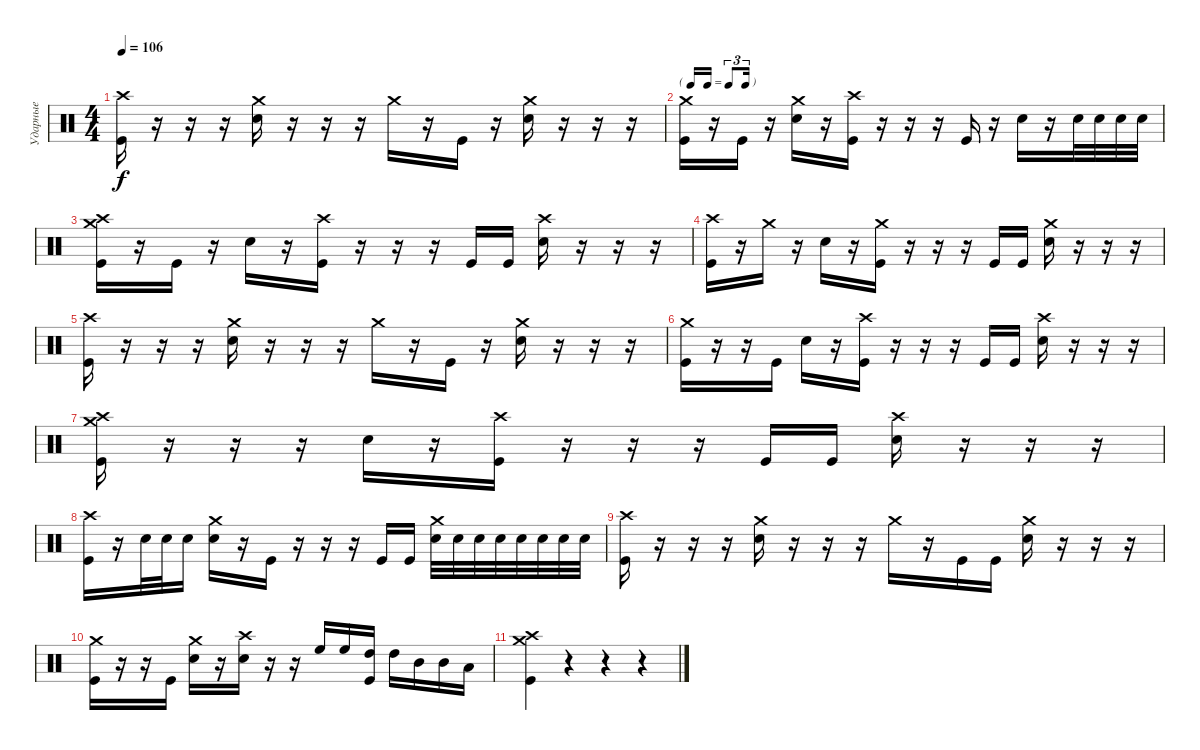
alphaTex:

\track ("Ударные" "Ударные") {instrument percussion}
\staff {score}
\articulation defaults
\ts (4 4)
\tempo 106
\clef neutral
\ks c
("Crash high (hit)" "Kick (hit)").16{dy f} r.16 r.16 r.16 ("Crash medium (hit)" "Snare (hit) 2").16 r.16 r.16 r.16 "Crash medium (hit)".16 r.16 "Kick (hit)".16 r.16 ("Crash medium (hit)" "Snare (hit) 2").16 r.16 r.16 r.16 |
\tf triplet16th
("Crash medium (hit)" "Kick (hit)").16 r.16 "Kick (hit)".16 r.16 ("Crash medium (hit)" "Snare (hit) 2").16 r.16 ("Crash high (hit)" "Kick (hit)").16 r.16 r.16 r.16 "Kick (hit)".16 r.16 "Snare (hit) 2".16 r.16 "Snare (hit) 2".32 "Snare (hit) 2".32 "Snare (hit) 2".32 "Snare (hit) 2".32 |
("Crash medium (hit)" "Crash high (hit)" "Kick (hit)").16 r.16 "Kick (hit)".16 r.16 "Snare (hit) 2".16 r.16 ("Crash high (hit)" "Kick (hit)").16 r.16 r.16 r.16 "Kick (hit)".16 "Kick (hit)".16 ("Crash high (hit)" "Snare (hit) 2").16 r.16 r.16 r.16 |
("Crash high (hit)" "Kick (hit)").16 r.16 "Crash medium (hit)".16 r.16 "Snare (hit) 2".16 r.16 ("Crash medium (hit)" "Kick (hit)").16 r.16 r.16 r.16 "Kick (hit)".16 "Kick (hit)".16 ("Crash medium (hit)" "Snare (hit) 2").16 r.16 r.16 r.16 |
("Crash high (hit)" "Kick (hit)").16 r.16 r.16 r.16 ("Crash medium (hit)" "Snare (hit) 2").16 r.16 r.16 r.16 "Crash medium (hit)".16 r.16 "Kick (hit)".16 r.16 ("Crash medium (hit)" "Snare (hit) 2").16 r.16 r.16 r.16 |
("Crash medium (hit)" "Kick (hit)").16 r.16 r.16 "Kick (hit)".16 "Snare (hit) 2".16 r.16 ("Crash high (hit)" "Kick (hit)").16 r.16 r.16 r.16 "Kick (hit)".16 "Kick (hit)".16 ("Crash high (hit)" "Snare (hit) 2").16 r.16 r.16 r.16 |
("Crash medium (hit)" "Crash high (hit)" "Kick (hit)").16 r.16 r.16 r.16 "Snare (hit) 2".16 r.16 ("Crash high (hit)" "Kick (hit)").16 r.16 r.16 r.16 "Kick (hit)".16 "Kick (hit)".16 ("Crash high (hit)" "Snare (hit) 2").16 r.16 r.16 r.16 |
("Crash high (hit)" "Kick (hit)").16 r.16 "Snare (hit) 2".32 "Snare (hit) 2".32 "Snare (hit) 2".16 ("Crash medium (hit)" "Snare (hit) 2").16 r.16 "Kick (hit)".16 r.16 r.16 r.16 "Kick (hit)".16 "Kick (hit)".16 ("Crash medium (hit)" "Snare (hit) 2").32 "Snare (hit) 2".32 "Snare (hit) 2".32 "Snare (hit) 2".32 "Snare (hit) 2".32 "Snare (hit) 2".32 "Snare (hit) 2".32 "Snare (hit) 2".32 |
("Crash high (hit)" "Kick (hit)").16 r.16 r.16 r.16 ("Crash medium (hit)" "Snare (hit) 2").16 r.16 r.16 r.16 "Crash medium (hit)".16 r.16 "Kick (hit)".16 "Kick (hit)".16 ("Crash medium (hit)" "Snare (hit) 2").16 r.16 r.16 r.16 |
("Crash medium (hit)" "Kick (hit)").16 r.16 r.16 "Kick (hit)".16 ("Crash medium (hit)" "Snare (hit) 2").16 r.16 ("Crash high (hit)" "Snare (hit) 2").16 r.16 r.16 "High Floor Tom (hit)".16 "High Floor Tom (hit)".16 ("High Tom (hit)" "Kick (hit)").16 "High Tom (hit)".16 "Mid Tom (hit)".16 "Mid Tom (hit)".16 "Low Tom (hit)".16 |
("Crash medium (hit)" "Crash high (hit)" "Kick (hit)").4 r.4 r.4 r.4
